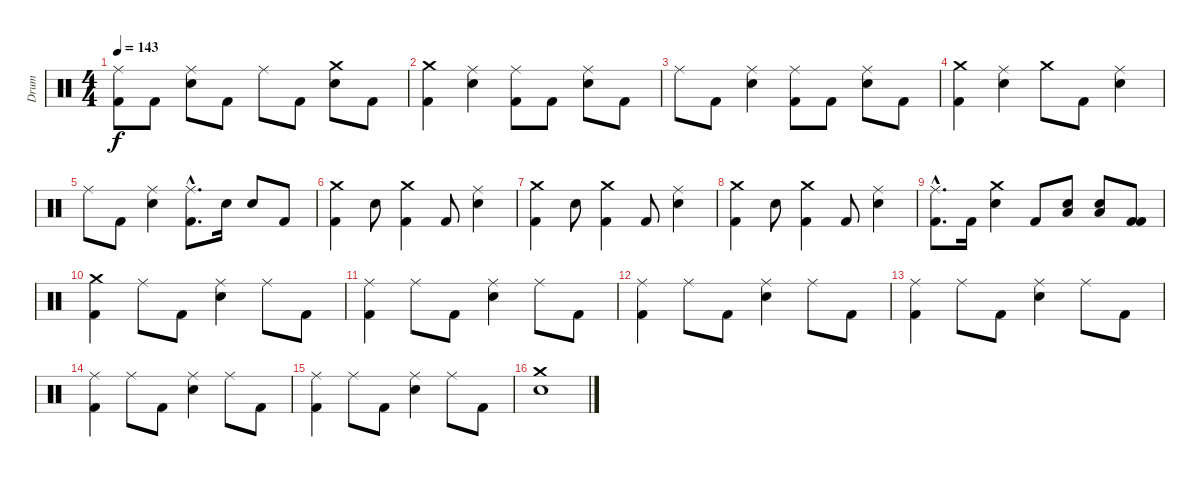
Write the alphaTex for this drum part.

\track ("Drum" "Drum") {instrument percussion}
\staff {score}
\articulation defaults
\ts (4 4)
\tempo 143
\clef neutral
\ks c
("Ride (middle)" "Kick (hit) 2").8{dy f} "Kick (hit) 2".8 ("Ride (middle)" "Snare (hit) 2").8 "Kick (hit) 2".8 "Ride (middle)".8 "Kick (hit) 2".8 ("Crash medium (hit)" "Snare (hit) 2").8 "Kick (hit) 2".8 |
("Crash medium (hit)" "Kick (hit) 2").4 ("Ride (middle)" "Snare (hit) 2").4 ("Ride (middle)" "Kick (hit) 2").8 "Kick (hit) 2".8 ("Ride (middle)" "Snare (hit) 2").8 "Kick (hit) 2".8 |
"Ride (middle)".8 "Kick (hit) 2".8 ("Ride (middle)" "Snare (hit) 2").4 ("Ride (middle)" "Kick (hit) 2").8 "Kick (hit) 2".8 ("Ride (middle)" "Snare (hit) 2").8 "Kick (hit) 2".8 |
("Crash medium (hit)" "Kick (hit) 2").4 ("Ride (middle)" "Snare (hit) 2").4 "Crash medium (hit)".8 "Kick (hit) 2".8 ("Ride (middle)" "Snare (hit) 2").4 |
"Ride (middle)".8 "Kick (hit) 2".8 ("Ride (middle)" "Snare (hit) 2").4 ("Ride (middle)"{hac} "Kick (hit) 2"{hac}).8{d} "Snare (hit) 2".16 "Snare (hit) 2".8 "Kick (hit) 2".8 |
("Crash medium (hit)" "Kick (hit) 2").4 "Snare (hit) 2".8 ("Crash medium (hit)" "Kick (hit) 2").4 "Kick (hit) 2".8 ("Ride (middle)" "Snare (hit) 2").4 |
("Crash medium (hit)" "Kick (hit) 2").4 "Snare (hit) 2".8 ("Crash medium (hit)" "Kick (hit) 2").4 "Kick (hit) 2".8 ("Ride (middle)" "Snare (hit) 2").4 |
("Crash medium (hit)" "Kick (hit) 2").4 "Snare (hit) 2".8 ("Crash medium (hit)" "Kick (hit) 2").4 "Kick (hit) 2".8 ("Ride (middle)" "Snare (hit) 2").4 |
("Ride (middle)"{hac} "Kick (hit) 2"{hac}).8{d} "Kick (hit) 2".16 ("Crash medium (hit)" "Snare (hit) 2").4 "Kick (hit) 2".8 ("Snare (hit) 2" "Low Floor Tom (hit)").8 ("Snare (hit) 2" "Low Floor Tom (hit)").8 ("Kick (hit) 2" "Kick (hit) 2").8 |
("Crash medium (hit)" "Kick (hit) 2").4 "Ride (middle)".8 "Kick (hit) 2".8 ("Ride (middle)" "Snare (hit) 2").4 "Ride (middle)".8 "Kick (hit) 2".8 |
("Ride (middle)" "Kick (hit) 2").4 "Ride (middle)".8 "Kick (hit) 2".8 ("Ride (middle)" "Snare (hit) 2").4 "Ride (middle)".8 "Kick (hit) 2".8 |
("Ride (middle)" "Kick (hit) 2").4 "Ride (middle)".8 "Kick (hit) 2".8 ("Ride (middle)" "Snare (hit) 2").4 "Ride (middle)".8 "Kick (hit) 2".8 |
("Ride (middle)" "Kick (hit) 2").4 "Ride (middle)".8 "Kick (hit) 2".8 ("Ride (middle)" "Snare (hit) 2").4 "Ride (middle)".8 "Kick (hit) 2".8 |
("Ride (middle)" "Kick (hit) 2").4 "Ride (middle)".8 "Kick (hit) 2".8 ("Ride (middle)" "Snare (hit) 2").4 "Ride (middle)".8 "Kick (hit) 2".8 |
("Ride (middle)" "Kick (hit) 2").4 "Ride (middle)".8 "Kick (hit) 2".8 ("Ride (middle)" "Snare (hit) 2").4 "Ride (middle)".8 "Kick (hit) 2".8 |
("Crash medium (hit)" "Snare (hit) 2").1
